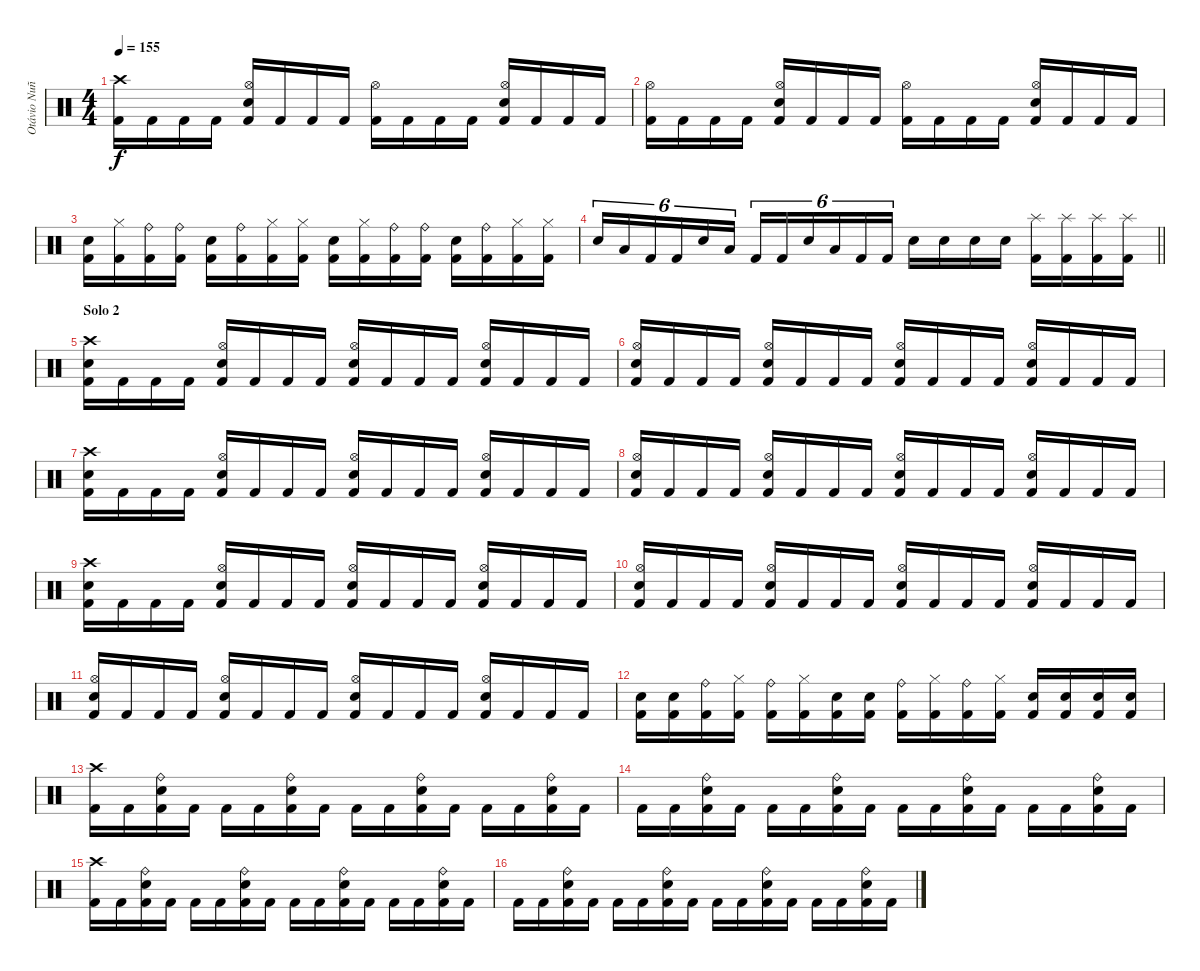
\track ("Otávio Nuñez" "Otávio Nuñ") {instrument percussion}
\staff {score}
\articulation defaults
\ts (4 4)
\tempo 155
\clef neutral
\ks c
("Crash high (hit)" "Kick (hit) 2").16{dy f} "Kick (hit) 2".16 "Kick (hit) 2".16 "Kick (hit) 2".16 ("Hi-Hat (open)" "Electric Snare (hit)" "Kick (hit) 2").16 "Kick (hit) 2".16 "Kick (hit) 2".16 "Kick (hit) 2".16 ("Hi-Hat (open)" "Kick (hit) 2").16 "Kick (hit) 2".16 "Kick (hit) 2".16 "Kick (hit) 2".16 ("Hi-Hat (open)" "Electric Snare (hit)" "Kick (hit) 2").16 "Kick (hit) 2".16 "Kick (hit) 2".16 "Kick (hit) 2".16 |
("Hi-Hat (open)" "Kick (hit) 2").16 "Kick (hit) 2".16 "Kick (hit) 2".16 "Kick (hit) 2".16 ("Hi-Hat (open)" "Electric Snare (hit)" "Kick (hit) 2").16 "Kick (hit) 2".16 "Kick (hit) 2".16 "Kick (hit) 2".16 ("Hi-Hat (open)" "Kick (hit) 2").16 "Kick (hit) 2".16 "Kick (hit) 2".16 "Kick (hit) 2".16 ("Hi-Hat (open)" "Electric Snare (hit)" "Kick (hit) 2").16 "Kick (hit) 2".16 "Kick (hit) 2".16 "Kick (hit) 2".16 |
("Electric Snare (hit)" "Kick (hit) 2").16 ("Hi-Hat (closed)" "Kick (hit) 2").16 ("Ride (bell)" "Kick (hit) 2").16 ("Ride (bell)" "Kick (hit) 2").16 ("Electric Snare (hit)" "Kick (hit) 2").16 ("Ride (bell)" "Kick (hit) 2").16 ("Hi-Hat (closed)" "Kick (hit) 2").16 ("Hi-Hat (closed)" "Kick (hit) 2").16 ("Electric Snare (hit)" "Kick (hit) 2").16 ("Hi-Hat (closed)" "Kick (hit) 2").16 ("Ride (bell)" "Kick (hit) 2").16 ("Ride (bell)" "Kick (hit) 2").16 ("Electric Snare (hit)" "Kick (hit) 2").16 ("Ride (bell)" "Kick (hit) 2").16 ("Hi-Hat (closed)" "Kick (hit) 2").16 ("Hi-Hat (closed)" "Kick (hit) 2").16 |
\barLineRight lightlight "Snare (hit) 2".16{tu (6 4)} "Low Tom (hit)".16{tu (6 4)} "Kick (hit) 2".16{tu (6 4)} "Kick (hit) 2".16{tu (6 4)} "Snare (hit) 2".16{tu (6 4)} "Low Tom (hit)".16{tu (6 4)} "Kick (hit) 2".16{tu (6 4)} "Kick (hit) 2".16{tu (6 4)} "Snare (hit) 2".16{tu (6 4)} "Low Tom (hit)".16{tu (6 4)} "Kick (hit) 2".16{tu (6 4)} "Kick (hit) 2".16{tu (6 4)} "Snare (hit) 2".16 "Snare (hit) 2".16 "Snare (hit) 2".16 "Snare (hit) 2".16
("Splash (hit)" "Kick (hit) 2").16 ("Splash (hit)" "Kick (hit) 2").16 ("Splash (hit)" "Kick (hit) 2").16 ("Splash (hit)" "Kick (hit) 2").16 |
\section ("" "Solo 2")
("Crash high (hit)" "Electric Snare (hit)" "Kick (hit) 2").16 "Kick (hit) 2".16 "Kick (hit) 2".16 "Kick (hit) 2".16 ("Hi-Hat (open)" "Electric Snare (hit)" "Kick (hit) 2").16 "Kick (hit) 2".16 "Kick (hit) 2".16 "Kick (hit) 2".16 ("Hi-Hat (open)" "Electric Snare (hit)" "Kick (hit) 2").16 "Kick (hit) 2".16 "Kick (hit) 2".16 "Kick (hit) 2".16 ("Hi-Hat (open)" "Electric Snare (hit)" "Kick (hit) 2").16 "Kick (hit) 2".16 "Kick (hit) 2".16 "Kick (hit) 2".16 |
("Hi-Hat (open)" "Electric Snare (hit)" "Kick (hit) 2").16 "Kick (hit) 2".16 "Kick (hit) 2".16 "Kick (hit) 2".16 ("Hi-Hat (open)" "Electric Snare (hit)" "Kick (hit) 2").16 "Kick (hit) 2".16 "Kick (hit) 2".16 "Kick (hit) 2".16 ("Hi-Hat (open)" "Electric Snare (hit)" "Kick (hit) 2").16 "Kick (hit) 2".16 "Kick (hit) 2".16 "Kick (hit) 2".16 ("Hi-Hat (open)" "Electric Snare (hit)" "Kick (hit) 2").16 "Kick (hit) 2".16 "Kick (hit) 2".16 "Kick (hit) 2".16 |
("Crash high (hit)" "Electric Snare (hit)" "Kick (hit) 2").16 "Kick (hit) 2".16 "Kick (hit) 2".16 "Kick (hit) 2".16 ("Hi-Hat (open)" "Electric Snare (hit)" "Kick (hit) 2").16 "Kick (hit) 2".16 "Kick (hit) 2".16 "Kick (hit) 2".16 ("Hi-Hat (open)" "Electric Snare (hit)" "Kick (hit) 2").16 "Kick (hit) 2".16 "Kick (hit) 2".16 "Kick (hit) 2".16 ("Hi-Hat (open)" "Electric Snare (hit)" "Kick (hit) 2").16 "Kick (hit) 2".16 "Kick (hit) 2".16 "Kick (hit) 2".16 |
("Hi-Hat (open)" "Electric Snare (hit)" "Kick (hit) 2").16 "Kick (hit) 2".16 "Kick (hit) 2".16 "Kick (hit) 2".16 ("Hi-Hat (open)" "Electric Snare (hit)" "Kick (hit) 2").16 "Kick (hit) 2".16 "Kick (hit) 2".16 "Kick (hit) 2".16 ("Hi-Hat (open)" "Electric Snare (hit)" "Kick (hit) 2").16 "Kick (hit) 2".16 "Kick (hit) 2".16 "Kick (hit) 2".16 ("Hi-Hat (open)" "Electric Snare (hit)" "Kick (hit) 2").16 "Kick (hit) 2".16 "Kick (hit) 2".16 "Kick (hit) 2".16 |
("Crash high (hit)" "Electric Snare (hit)" "Kick (hit) 2").16 "Kick (hit) 2".16 "Kick (hit) 2".16 "Kick (hit) 2".16 ("Hi-Hat (open)" "Electric Snare (hit)" "Kick (hit) 2").16 "Kick (hit) 2".16 "Kick (hit) 2".16 "Kick (hit) 2".16 ("Hi-Hat (open)" "Electric Snare (hit)" "Kick (hit) 2").16 "Kick (hit) 2".16 "Kick (hit) 2".16 "Kick (hit) 2".16 ("Hi-Hat (open)" "Electric Snare (hit)" "Kick (hit) 2").16 "Kick (hit) 2".16 "Kick (hit) 2".16 "Kick (hit) 2".16 |
("Hi-Hat (open)" "Electric Snare (hit)" "Kick (hit) 2").16 "Kick (hit) 2".16 "Kick (hit) 2".16 "Kick (hit) 2".16 ("Hi-Hat (open)" "Electric Snare (hit)" "Kick (hit) 2").16 "Kick (hit) 2".16 "Kick (hit) 2".16 "Kick (hit) 2".16 ("Hi-Hat (open)" "Electric Snare (hit)" "Kick (hit) 2").16 "Kick (hit) 2".16 "Kick (hit) 2".16 "Kick (hit) 2".16 ("Hi-Hat (open)" "Electric Snare (hit)" "Kick (hit) 2").16 "Kick (hit) 2".16 "Kick (hit) 2".16 "Kick (hit) 2".16 |
("Hi-Hat (open)" "Electric Snare (hit)" "Kick (hit) 2").16 "Kick (hit) 2".16 "Kick (hit) 2".16 "Kick (hit) 2".16 ("Hi-Hat (open)" "Electric Snare (hit)" "Kick (hit) 2").16 "Kick (hit) 2".16 "Kick (hit) 2".16 "Kick (hit) 2".16 ("Hi-Hat (open)" "Electric Snare (hit)" "Kick (hit) 2").16 "Kick (hit) 2".16 "Kick (hit) 2".16 "Kick (hit) 2".16 ("Hi-Hat (open)" "Electric Snare (hit)" "Kick (hit) 2").16 "Kick (hit) 2".16 "Kick (hit) 2".16 "Kick (hit) 2".16 |
("Electric Snare (hit)" "Kick (hit) 2").16 ("Electric Snare (hit)" "Kick (hit) 2").16 ("Ride (bell)" "Kick (hit) 2").16 ("Hi-Hat (closed)" "Kick (hit) 2").16 ("Ride (bell)" "Kick (hit) 2").16 ("Hi-Hat (closed)" "Kick (hit) 2").16 ("Electric Snare (hit)" "Kick (hit) 2").16 ("Electric Snare (hit)" "Kick (hit) 2").16 ("Ride (bell)" "Kick (hit) 2").16 ("Hi-Hat (closed)" "Kick (hit) 2").16 ("Ride (bell)" "Kick (hit) 2").16 ("Hi-Hat (closed)" "Kick (hit) 2").16 ("Electric Snare (hit)" "Kick (hit) 2").16 ("Electric Snare (hit)" "Kick (hit) 2").16 ("Electric Snare (hit)" "Kick (hit) 2").16 ("Electric Snare (hit)" "Kick (hit) 2").16 |
("Crash high (hit)" "Kick (hit) 2").16 "Kick (hit) 2".16 ("Ride (bell)" "Electric Snare (hit)" "Kick (hit) 2").16 "Kick (hit) 2".16 "Kick (hit) 2".16 "Kick (hit) 2".16 ("Ride (bell)" "Electric Snare (hit)" "Kick (hit) 2").16 "Kick (hit) 2".16 "Kick (hit) 2".16 "Kick (hit) 2".16 ("Ride (bell)" "Electric Snare (hit)" "Kick (hit) 2").16 "Kick (hit) 2".16 "Kick (hit) 2".16 "Kick (hit) 2".16 ("Ride (bell)" "Electric Snare (hit)" "Kick (hit) 2").16 "Kick (hit) 2".16 |
"Kick (hit) 2".16 "Kick (hit) 2".16 ("Ride (bell)" "Electric Snare (hit)" "Kick (hit) 2").16 "Kick (hit) 2".16 "Kick (hit) 2".16 "Kick (hit) 2".16 ("Ride (bell)" "Electric Snare (hit)" "Kick (hit) 2").16 "Kick (hit) 2".16 "Kick (hit) 2".16 "Kick (hit) 2".16 ("Ride (bell)" "Electric Snare (hit)" "Kick (hit) 2").16 "Kick (hit) 2".16 "Kick (hit) 2".16 "Kick (hit) 2".16 ("Ride (bell)" "Electric Snare (hit)" "Kick (hit) 2").16 "Kick (hit) 2".16 |
("Crash high (hit)" "Kick (hit) 2").16 "Kick (hit) 2".16 ("Ride (bell)" "Electric Snare (hit)" "Kick (hit) 2").16 "Kick (hit) 2".16 "Kick (hit) 2".16 "Kick (hit) 2".16 ("Ride (bell)" "Electric Snare (hit)" "Kick (hit) 2").16 "Kick (hit) 2".16 "Kick (hit) 2".16 "Kick (hit) 2".16 ("Ride (bell)" "Electric Snare (hit)" "Kick (hit) 2").16 "Kick (hit) 2".16 "Kick (hit) 2".16 "Kick (hit) 2".16 ("Ride (bell)" "Electric Snare (hit)" "Kick (hit) 2").16 "Kick (hit) 2".16 |
"Kick (hit) 2".16 "Kick (hit) 2".16 ("Ride (bell)" "Electric Snare (hit)" "Kick (hit) 2").16 "Kick (hit) 2".16 "Kick (hit) 2".16 "Kick (hit) 2".16 ("Ride (bell)" "Electric Snare (hit)" "Kick (hit) 2").16 "Kick (hit) 2".16 "Kick (hit) 2".16 "Kick (hit) 2".16 ("Ride (bell)" "Electric Snare (hit)" "Kick (hit) 2").16 "Kick (hit) 2".16 "Kick (hit) 2".16 "Kick (hit) 2".16 ("Ride (bell)" "Electric Snare (hit)" "Kick (hit) 2").16 "Kick (hit) 2".16
